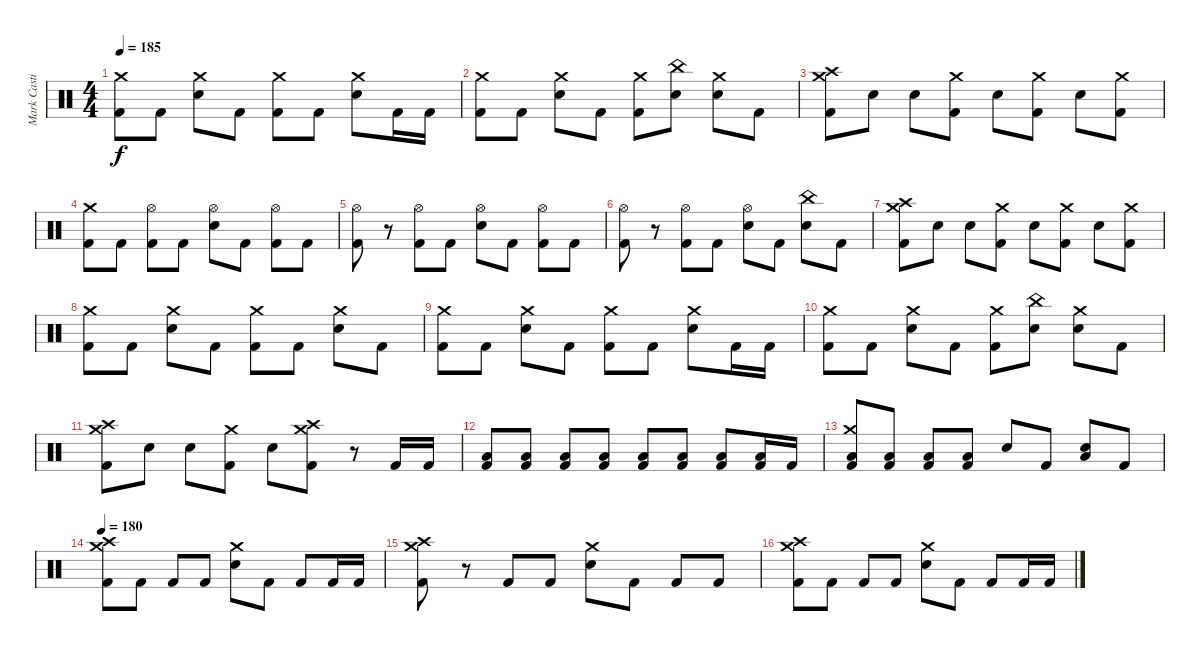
\track ("Mark Castillo" "Mark Casti") {instrument percussion}
\staff {score}
\articulation defaults
\ts (4 4)
\tempo 185
\clef neutral
\ks c
("Kick (hit) 2" "Crash medium (hit)").8{dy f} "Kick (hit) 2".8 ("Electric Snare (hit)" "Crash medium (hit)").8 "Kick (hit) 2".8 ("Kick (hit) 2" "Crash medium (hit)").8 "Kick (hit) 2".8 ("Electric Snare (hit)" "Crash medium (hit)").8 "Kick (hit) 2".16 "Kick (hit) 2".16 |
("Kick (hit) 2" "Crash medium (hit)").8 "Kick (hit) 2".8 ("Electric Snare (hit)" "Crash medium (hit)").8 "Kick (hit) 2".8 ("Kick (hit) 2" "Crash medium (hit)").8 ("Electric Snare (hit)" "China (hit)").8 ("Electric Snare (hit)" "Crash medium (hit)").8 "Kick (hit) 2".8 |
("Kick (hit) 2" "Crash medium (hit)" "Crash high (hit)").8 "Electric Snare (hit)".8 "Electric Snare (hit)".8 ("Kick (hit) 2" "Crash medium (hit)").8 "Electric Snare (hit)".8 ("Kick (hit) 2" "Crash medium (hit)").8 "Electric Snare (hit)".8 ("Kick (hit) 2" "Crash medium (hit)").8 |
("Kick (hit) 2" "Crash medium (hit)").8 "Kick (hit) 2".8 ("Kick (hit) 2" "Hi-Hat (open)").8 "Kick (hit) 2".8 ("Electric Snare (hit)" "Hi-Hat (open)").8 "Kick (hit) 2".8 ("Kick (hit) 2" "Hi-Hat (open)").8 "Kick (hit) 2".8 |
("Kick (hit) 2" "Hi-Hat (open)").8 r.8 ("Kick (hit) 2" "Hi-Hat (open)").8 "Kick (hit) 2".8 ("Electric Snare (hit)" "Hi-Hat (open)").8 "Kick (hit) 2".8 ("Kick (hit) 2" "Hi-Hat (open)").8 "Kick (hit) 2".8 |
("Kick (hit) 2" "Hi-Hat (open)").8 r.8 ("Kick (hit) 2" "Hi-Hat (open)").8 "Kick (hit) 2".8 ("Electric Snare (hit)" "Hi-Hat (open)").8 "Kick (hit) 2".8 ("Electric Snare (hit)" "China (hit)").8 "Kick (hit) 2".8 |
("Kick (hit) 2" "Crash medium (hit)" "Crash high (hit)").8 "Electric Snare (hit)".8 "Electric Snare (hit)".8 ("Kick (hit) 2" "Crash medium (hit)").8 "Electric Snare (hit)".8 ("Kick (hit) 2" "Crash medium (hit)").8 "Electric Snare (hit)".8 ("Kick (hit) 2" "Crash medium (hit)").8 |
("Kick (hit) 2" "Crash medium (hit)").8 "Kick (hit) 2".8 ("Electric Snare (hit)" "Crash medium (hit)").8 "Kick (hit) 2".8 ("Kick (hit) 2" "Crash medium (hit)").8 "Kick (hit) 2".8 ("Electric Snare (hit)" "Crash medium (hit)").8 "Kick (hit) 2".8 |
("Kick (hit) 2" "Crash medium (hit)").8 "Kick (hit) 2".8 ("Electric Snare (hit)" "Crash medium (hit)").8 "Kick (hit) 2".8 ("Kick (hit) 2" "Crash medium (hit)").8 "Kick (hit) 2".8 ("Electric Snare (hit)" "Crash medium (hit)").8 "Kick (hit) 2".16 "Kick (hit) 2".16 |
("Kick (hit) 2" "Crash medium (hit)").8 "Kick (hit) 2".8 ("Electric Snare (hit)" "Crash medium (hit)").8 "Kick (hit) 2".8 ("Kick (hit) 2" "Crash medium (hit)").8 ("Electric Snare (hit)" "China (hit)").8 ("Electric Snare (hit)" "Crash medium (hit)").8 "Kick (hit) 2".8 |
("Kick (hit) 2" "Crash medium (hit)" "Crash high (hit)").8 "Electric Snare (hit)".8 "Electric Snare (hit)".8 ("Kick (hit) 2" "Crash medium (hit)").8 "Electric Snare (hit)".8 ("Kick (hit) 2" "Crash medium (hit)" "Crash high (hit)").8 r.8 "Kick (hit) 2".16 "Kick (hit) 2".16 |
("Kick (hit) 2" "Low Tom (hit)").8 ("Kick (hit) 2" "Low Tom (hit)").8 ("Kick (hit) 2" "Low Tom (hit)").8 ("Kick (hit) 2" "Low Tom (hit)").8 ("Kick (hit) 2" "Low Tom (hit)").8 ("Kick (hit) 2" "Low Tom (hit)").8 ("Kick (hit) 2" "Low Tom (hit)").8 ("Kick (hit) 2" "Low Tom (hit)").16 "Kick (hit) 2".16 |
("Kick (hit) 2" "Low Tom (hit)" "Crash medium (hit)").8 ("Kick (hit) 2" "Low Tom (hit)").8 ("Kick (hit) 2" "Low Tom (hit)").8 ("Kick (hit) 2" "Low Tom (hit)").8 "Electric Snare (hit)".8 "Kick (hit) 2".8 ("Electric Snare (hit)" "Low Tom (hit)").8 "Kick (hit) 2".8 |
\tempo 180
("Kick (hit) 2" "Crash medium (hit)" "Crash high (hit)").8 "Kick (hit) 2".8 "Kick (hit) 2".8 "Kick (hit) 2".8 ("Electric Snare (hit)" "Crash medium (hit)").8 "Kick (hit) 2".8 "Kick (hit) 2".8 "Kick (hit) 2".16 "Kick (hit) 2".16 |
("Kick (hit) 2" "Crash medium (hit)" "Crash high (hit)").8 r.8 "Kick (hit) 2".8 "Kick (hit) 2".8 ("Electric Snare (hit)" "Crash medium (hit)").8 "Kick (hit) 2".8 "Kick (hit) 2".8 "Kick (hit) 2".8 |
("Kick (hit) 2" "Crash medium (hit)" "Crash high (hit)").8 "Kick (hit) 2".8 "Kick (hit) 2".8 "Kick (hit) 2".8 ("Electric Snare (hit)" "Crash medium (hit)").8 "Kick (hit) 2".8 "Kick (hit) 2".8 "Kick (hit) 2".16 "Kick (hit) 2".16
